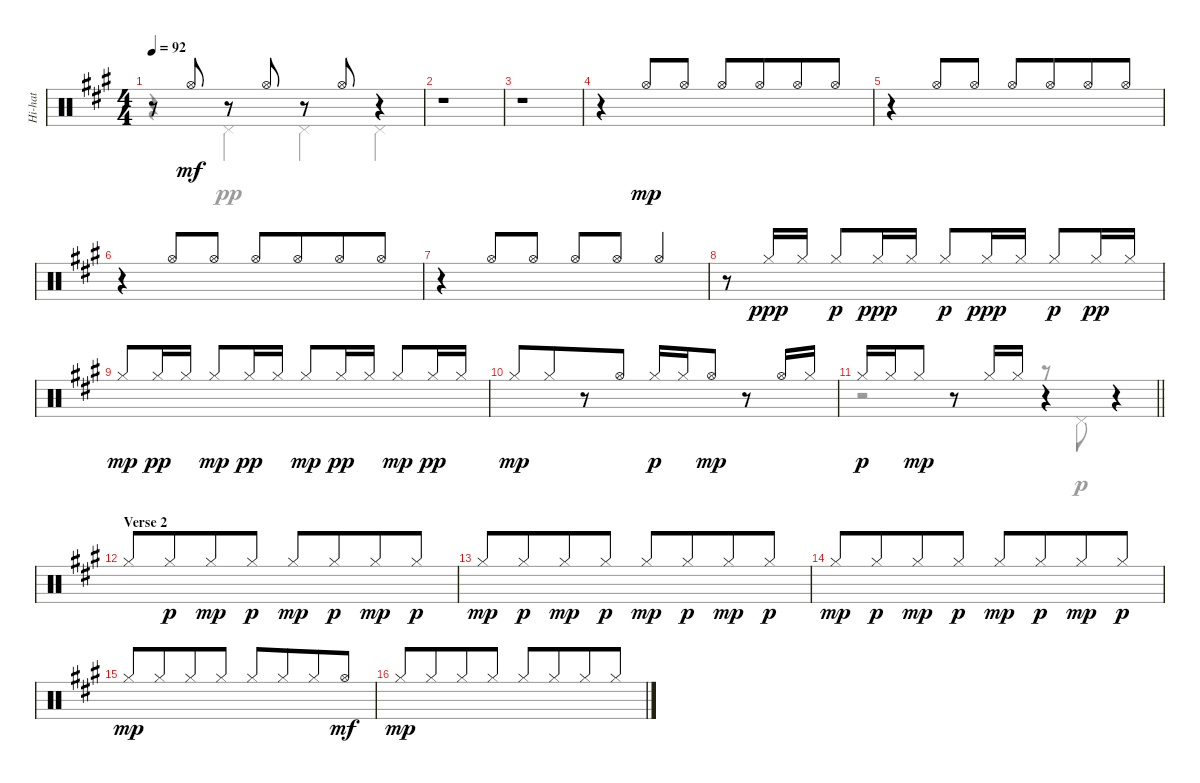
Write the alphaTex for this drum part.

\track ("Hi-hat" "Hi-hat") {instrument percussion}
\staff {score}
\articulation defaults
\voice
\ts (4 4)
\tempo 92
\clef neutral
\ks f#minor
r.8{dy mp} "Hi-Hat (open)".8{dy mf beam split} r.8 "Hi-Hat (open)".8 r.8 "Hi-Hat (open)".8 r.4 |
r.1 |
r.1 |
r.4 "Hi-Hat (open)".8{dy mp beam Up} "Hi-Hat (open)".8{beam Up} "Hi-Hat (open)".8{beam Up} "Hi-Hat (open)".8{beam Up beam merge} "Hi-Hat (open)".8{beam Up} "Hi-Hat (open)".8{beam Up} |
r.4 "Hi-Hat (open)".8{beam Up} "Hi-Hat (open)".8{beam Up} "Hi-Hat (open)".8{beam Up} "Hi-Hat (open)".8{beam Up beam merge} "Hi-Hat (open)".8{beam Up} "Hi-Hat (open)".8{beam Up} |
r.4 "Hi-Hat (open)".8{beam Up} "Hi-Hat (open)".8{beam Up} "Hi-Hat (open)".8{beam Up} "Hi-Hat (open)".8{beam Up beam merge} "Hi-Hat (open)".8{beam Up} "Hi-Hat (open)".8{beam Up} |
r.4 "Hi-Hat (open)".8{beam Up} "Hi-Hat (open)".8{beam Up} "Hi-Hat (open)".8{beam Up} "Hi-Hat (open)".8{beam Up} "Hi-Hat (open)".4{beam Up} |
r.8 "Hi-Hat (closed)".16{dy ppp beam Up} "Hi-Hat (closed)".16{beam Up} "Hi-Hat (closed)".8{dy p beam Up} "Hi-Hat (closed)".16{dy ppp beam Up} "Hi-Hat (closed)".16{beam Up} "Hi-Hat (closed)".8{dy p beam Up} "Hi-Hat (closed)".16{dy ppp beam Up} "Hi-Hat (closed)".16{beam Up} "Hi-Hat (closed)".8{dy p beam Up} "Hi-Hat (closed)".16{dy pp beam Up} "Hi-Hat (closed)".16{beam Up} |
"Hi-Hat (closed)".8{dy mp beam Up} "Hi-Hat (closed)".16{dy pp beam Up} "Hi-Hat (closed)".16{beam Up} "Hi-Hat (closed)".8{dy mp beam Up} "Hi-Hat (closed)".16{dy pp beam Up} "Hi-Hat (closed)".16{beam Up} "Hi-Hat (closed)".8{dy mp beam Up} "Hi-Hat (closed)".16{dy pp beam Up} "Hi-Hat (closed)".16{beam Up} "Hi-Hat (closed)".8{dy mp beam Up} "Hi-Hat (closed)".16{dy pp beam Up} "Hi-Hat (closed)".16{beam Up} |
"Hi-Hat (closed)".8{dy mp beam Up} "Hi-Hat (closed)".8{beam Up beam merge} r.8 "Hi-Hat (open)".8{beam Up} "Hi-Hat (closed)".16{dy p beam Up} "Hi-Hat (closed)".16{beam Up} "Hi-Hat (open)".8{dy mp beam Up} r.8 "Hi-Hat (open)".16{beam Up} "Hi-Hat (closed)".16{beam Up} |
\barLineRight lightlight "Hi-Hat (closed)".16{dy p} "Hi-Hat (closed)".16 "Hi-Hat (closed)".8{dy mp}
r.8 "Hi-Hat (closed)".16 "Hi-Hat (closed)".16 r.4 r.4 |
\section ("" "Verse 2")
"Hi-Hat (closed)".8{beam Up} "Hi-Hat (closed)".8{dy p beam Up beam merge} "Hi-Hat (closed)".8{dy mp beam Up} "Hi-Hat (closed)".8{dy p beam Up} "Hi-Hat (closed)".8{dy mp beam Up} "Hi-Hat (closed)".8{dy p beam Up beam merge} "Hi-Hat (closed)".8{dy mp beam Up} "Hi-Hat (closed)".8{dy p beam Up} |
"Hi-Hat (closed)".8{dy mp beam Up} "Hi-Hat (closed)".8{dy p beam Up beam merge} "Hi-Hat (closed)".8{dy mp beam Up} "Hi-Hat (closed)".8{dy p beam Up} "Hi-Hat (closed)".8{dy mp beam Up} "Hi-Hat (closed)".8{dy p beam Up beam merge} "Hi-Hat (closed)".8{dy mp beam Up} "Hi-Hat (closed)".8{dy p beam Up} |
"Hi-Hat (closed)".8{dy mp beam Up} "Hi-Hat (closed)".8{dy p beam Up beam merge} "Hi-Hat (closed)".8{dy mp beam Up} "Hi-Hat (closed)".8{dy p beam Up} "Hi-Hat (closed)".8{dy mp beam Up} "Hi-Hat (closed)".8{dy p beam Up beam merge} "Hi-Hat (closed)".8{dy mp beam Up} "Hi-Hat (closed)".8{dy p beam Up} |
"Hi-Hat (closed)".8{dy mp beam Up} "Hi-Hat (closed)".8{beam Up beam merge} "Hi-Hat (closed)".8{beam Up} "Hi-Hat (closed)".8{beam Up} "Hi-Hat (closed)".8{beam Up} "Hi-Hat (closed)".8{beam Up beam merge} "Hi-Hat (closed)".8{beam Up} "Hi-Hat (open)".8{dy mf beam Up} |
"Hi-Hat (closed)".8{dy mp beam Up} "Hi-Hat (closed)".8{beam Up beam merge} "Hi-Hat (closed)".8{beam Up} "Hi-Hat (closed)".8{beam Up} "Hi-Hat (closed)".8{beam Up} "Hi-Hat (closed)".8{beam Up beam merge} "Hi-Hat (closed)".8{beam Up} "Hi-Hat (closed)".8{beam Up}
\voice
\clef neutral
\ottava regular
\simile none
\ks f#minor
r.4{dy pp} "Pedal Hi-Hat (hit)".4 "Pedal Hi-Hat (hit)".4 "Pedal Hi-Hat (hit)".4 |
|
|
|
|
|
|
|
|
|
\barLineRight lightlight
r.2 r.8 "Pedal Hi-Hat (hit)".8{dy p} r.4 |
|
|
|
|
